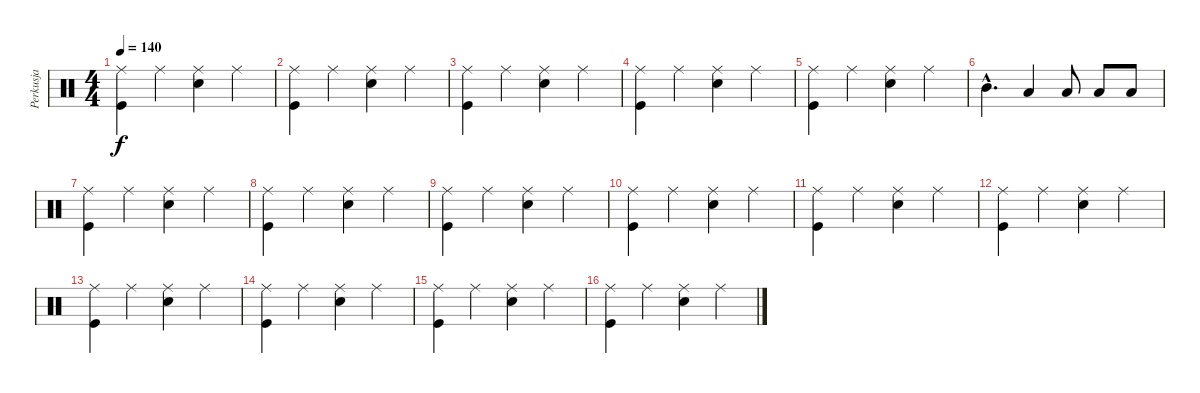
\track ("Perkusja" "Perkusja") {instrument percussion}
\staff {score}
\articulation defaults
\ts (4 4)
\tempo 140
\clef neutral
\ks c
("Ride (middle)" "Kick (hit)").4{dy f} "Ride (middle)".4 ("Ride (middle)" "Snare (hit) 2").4 "Ride (middle)".4 |
("Ride (middle)" "Kick (hit)").4 "Ride (middle)".4 ("Ride (middle)" "Snare (hit) 2").4 "Ride (middle)".4 |
("Ride (middle)" "Kick (hit)").4 "Ride (middle)".4 ("Ride (middle)" "Snare (hit) 2").4 "Ride (middle)".4 |
("Ride (middle)" "Kick (hit)").4 "Ride (middle)".4 ("Ride (middle)" "Snare (hit) 2").4 "Ride (middle)".4 |
("Ride (middle)" "Kick (hit)").4 "Ride (middle)".4 ("Ride (middle)" "Snare (hit) 2").4 "Ride (middle)".4 |
"Mid Tom (hit)"{hac}.4{d} "Low Tom (hit)".4 "Low Tom (hit)".8 "Low Tom (hit)".8 "Low Floor Tom (hit)".8 |
("Ride (middle)" "Kick (hit)").4 "Ride (middle)".4 ("Ride (middle)" "Snare (hit) 2").4 "Ride (middle)".4 |
("Ride (middle)" "Kick (hit)").4 "Ride (middle)".4 ("Ride (middle)" "Snare (hit) 2").4 "Ride (middle)".4 |
("Ride (middle)" "Kick (hit)").4 "Ride (middle)".4 ("Ride (middle)" "Snare (hit) 2").4 "Ride (middle)".4 |
("Ride (middle)" "Kick (hit)").4 "Ride (middle)".4 ("Ride (middle)" "Snare (hit) 2").4 "Ride (middle)".4 |
("Ride (middle)" "Kick (hit)").4 "Ride (middle)".4 ("Ride (middle)" "Snare (hit) 2").4 "Ride (middle)".4 |
("Ride (middle)" "Kick (hit)").4 "Ride (middle)".4 ("Ride (middle)" "Snare (hit) 2").4 "Ride (middle)".4 |
("Ride (middle)" "Kick (hit)").4 "Ride (middle)".4 ("Ride (middle)" "Snare (hit) 2").4 "Ride (middle)".4 |
("Ride (middle)" "Kick (hit)").4 "Ride (middle)".4 ("Ride (middle)" "Snare (hit) 2").4 "Ride (middle)".4 |
("Ride (middle)" "Kick (hit)").4 "Ride (middle)".4 ("Ride (middle)" "Snare (hit) 2").4 "Ride (middle)".4 |
("Ride (middle)" "Kick (hit)").4 "Ride (middle)".4 ("Ride (middle)" "Snare (hit) 2").4 "Ride (middle)".4
